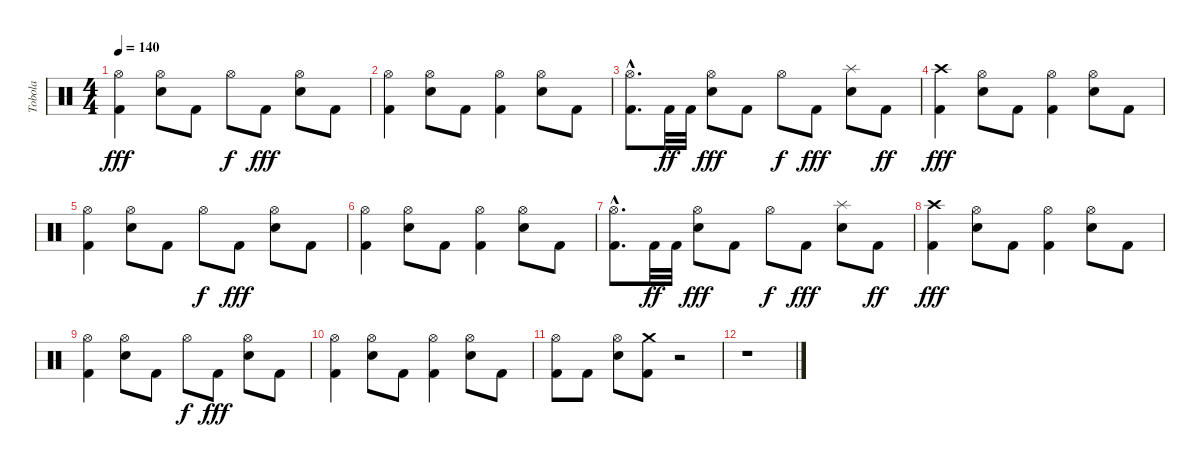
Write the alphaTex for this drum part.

\track ("Tobola" "Tobola") {instrument percussion}
\staff {score}
\articulation defaults
\ts (4 4)
\tempo 140
\clef neutral
\ks c
("Hi-Hat (open)" "Kick (hit) 2").4{dy fff} ("Hi-Hat (open)" "Snare (hit) 2").8 "Kick (hit) 2".8 "Hi-Hat (open)".8{dy f} "Kick (hit) 2".8{dy fff} ("Hi-Hat (open)" "Snare (hit) 2").8 "Kick (hit) 2".8 |
("Hi-Hat (open)" "Kick (hit) 2").4 ("Hi-Hat (open)" "Snare (hit) 2").8 "Kick (hit) 2".8 ("Hi-Hat (open)" "Kick (hit) 2").4 ("Hi-Hat (open)" "Snare (hit) 2").8 "Kick (hit) 2".8 |
("Hi-Hat (open)"{hac} "Kick (hit) 2"{hac}).8{d} "Kick (hit) 2".32{dy ff} "Kick (hit) 2".32 ("Hi-Hat (open)" "Snare (hit) 2").8{dy fff} "Kick (hit) 2".8 "Hi-Hat (open)".8{dy f} "Kick (hit) 2".8{dy fff} ("Splash (hit)" "Snare (hit) 2").8 "Kick (hit) 2".8{dy ff} |
("Crash high (hit)" "Kick (hit) 2").4{dy fff} ("Hi-Hat (open)" "Snare (hit) 2").8 "Kick (hit) 2".8 ("Hi-Hat (open)" "Kick (hit) 2").4 ("Hi-Hat (open)" "Snare (hit) 2").8 "Kick (hit) 2".8 |
("Hi-Hat (open)" "Kick (hit) 2").4 ("Hi-Hat (open)" "Snare (hit) 2").8 "Kick (hit) 2".8 "Hi-Hat (open)".8{dy f} "Kick (hit) 2".8{dy fff} ("Hi-Hat (open)" "Snare (hit) 2").8 "Kick (hit) 2".8 |
("Hi-Hat (open)" "Kick (hit) 2").4 ("Hi-Hat (open)" "Snare (hit) 2").8 "Kick (hit) 2".8 ("Hi-Hat (open)" "Kick (hit) 2").4 ("Hi-Hat (open)" "Snare (hit) 2").8 "Kick (hit) 2".8 |
("Hi-Hat (open)"{hac} "Kick (hit) 2"{hac}).8{d} "Kick (hit) 2".32{dy ff} "Kick (hit) 2".32 ("Hi-Hat (open)" "Snare (hit) 2").8{dy fff} "Kick (hit) 2".8 "Hi-Hat (open)".8{dy f} "Kick (hit) 2".8{dy fff} ("Splash (hit)" "Snare (hit) 2").8 "Kick (hit) 2".8{dy ff} |
("Crash high (hit)" "Kick (hit) 2").4{dy fff} ("Hi-Hat (open)" "Snare (hit) 2").8 "Kick (hit) 2".8 ("Hi-Hat (open)" "Kick (hit) 2").4 ("Hi-Hat (open)" "Snare (hit) 2").8 "Kick (hit) 2".8 |
("Hi-Hat (open)" "Kick (hit) 2").4 ("Hi-Hat (open)" "Snare (hit) 2").8 "Kick (hit) 2".8 "Hi-Hat (open)".8{dy f} "Kick (hit) 2".8{dy fff} ("Hi-Hat (open)" "Snare (hit) 2").8 "Kick (hit) 2".8 |
("Hi-Hat (open)" "Kick (hit) 2").4 ("Hi-Hat (open)" "Snare (hit) 2").8 "Kick (hit) 2".8 ("Hi-Hat (open)" "Kick (hit) 2").4 ("Hi-Hat (open)" "Snare (hit) 2").8 "Kick (hit) 2".8 |
("Hi-Hat (open)" "Kick (hit) 2").8 "Kick (hit) 2".8 ("Hi-Hat (open)" "Snare (hit) 2").8 ("Crash medium (hit)" "Kick (hit) 2").8 r.2 |
r.1
